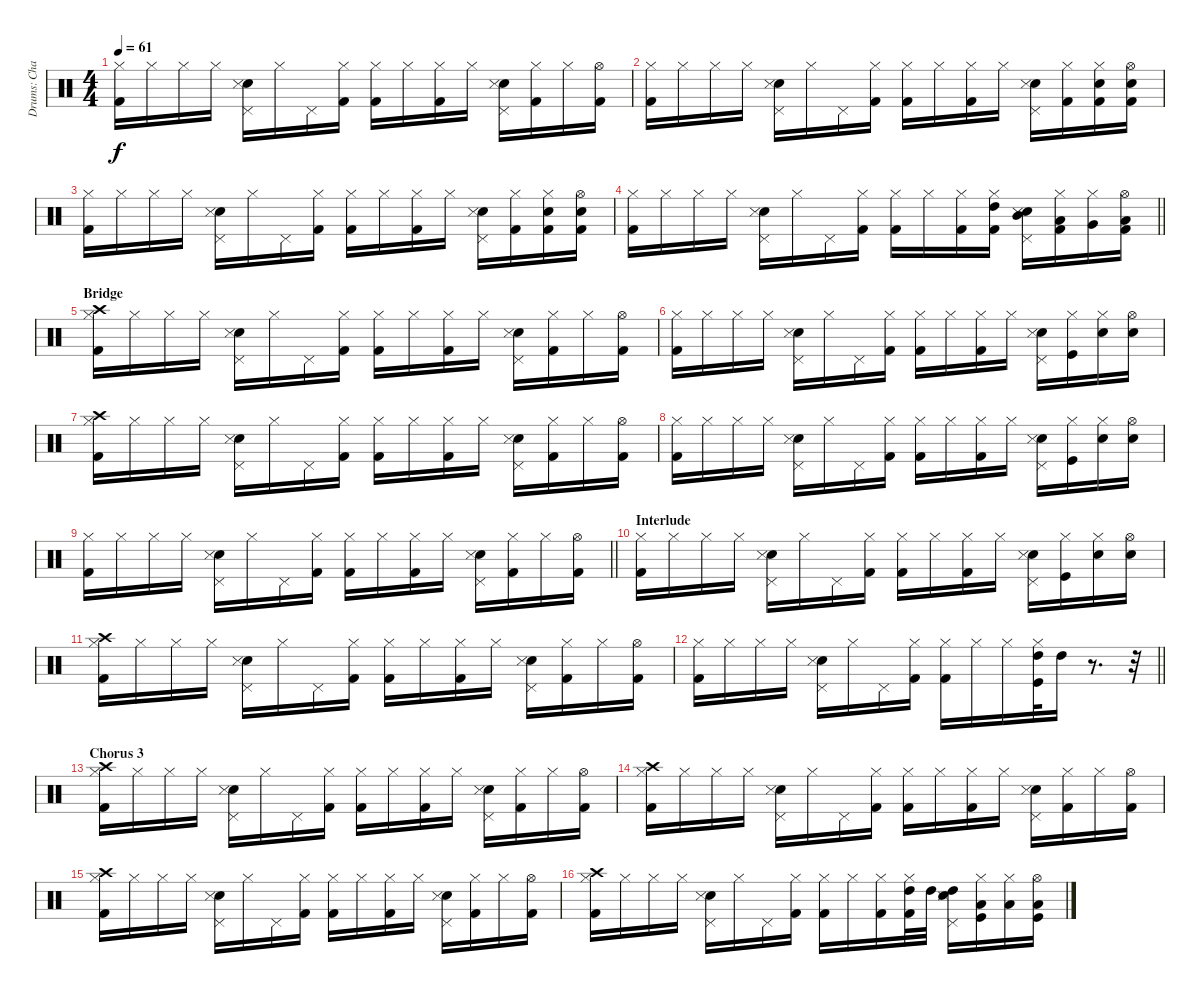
\track ("Drums: Charlie Sierra" "Drums: Cha") {instrument percussion}
\staff {score}
\articulation defaults
\ts (4 4)
\tempo 61
\clef neutral
\ks c
("Hi-Hat (closed)" "Kick (hit) 2").16{dy f} "Hi-Hat (closed)".16 "Hi-Hat (closed)".16 "Hi-Hat (closed)".16 ("Pedal Hi-Hat (hit)" "Snare (hit) 2" "Snare (side stick) 3").16 "Hi-Hat (closed)".16 "Pedal Hi-Hat (hit)".16 ("Hi-Hat (closed)" "Kick (hit) 2").16 ("Hi-Hat (closed)" "Kick (hit) 2").16 "Hi-Hat (closed)".16 ("Hi-Hat (closed)" "Kick (hit) 2").16 "Hi-Hat (closed)".16 ("Pedal Hi-Hat (hit)" "Snare (hit) 2" "Snare (side stick) 3").16 ("Hi-Hat (closed)" "Kick (hit) 2").16 "Hi-Hat (closed)".16 ("Hi-Hat (open)" "Kick (hit) 2").16 |
("Hi-Hat (closed)" "Kick (hit) 2").16 "Hi-Hat (closed)".16 "Hi-Hat (closed)".16 "Hi-Hat (closed)".16 ("Pedal Hi-Hat (hit)" "Snare (hit) 2" "Snare (side stick) 3").16 "Hi-Hat (closed)".16 "Pedal Hi-Hat (hit)".16 ("Hi-Hat (closed)" "Kick (hit) 2").16 ("Hi-Hat (closed)" "Kick (hit) 2").16 "Hi-Hat (closed)".16 ("Hi-Hat (closed)" "Kick (hit) 2").16 "Hi-Hat (closed)".16 ("Pedal Hi-Hat (hit)" "Snare (hit) 2" "Snare (side stick) 3").16 ("Hi-Hat (closed)" "Kick (hit) 2").16 ("Hi-Hat (closed)" "Snare (hit) 2" "Kick (hit) 2").16 ("Hi-Hat (open)" "Snare (hit) 2" "Kick (hit) 2").16 |
("Hi-Hat (closed)" "Kick (hit) 2").16 "Hi-Hat (closed)".16 "Hi-Hat (closed)".16 "Hi-Hat (closed)".16 ("Pedal Hi-Hat (hit)" "Snare (hit) 2" "Snare (side stick) 3").16 "Hi-Hat (closed)".16 "Pedal Hi-Hat (hit)".16 ("Hi-Hat (closed)" "Kick (hit) 2").16 ("Hi-Hat (closed)" "Kick (hit) 2").16 "Hi-Hat (closed)".16 ("Hi-Hat (closed)" "Kick (hit) 2").16 "Hi-Hat (closed)".16 ("Pedal Hi-Hat (hit)" "Snare (hit) 2" "Snare (side stick) 3").16 ("Hi-Hat (closed)" "Kick (hit) 2").16 ("Hi-Hat (closed)" "Snare (hit) 2" "Kick (hit) 2").16 ("Hi-Hat (open)" "Snare (hit) 2" "Kick (hit) 2").16 |
\barLineRight lightlight
("Hi-Hat (closed)" "Kick (hit) 2").16 "Hi-Hat (closed)".16 "Hi-Hat (closed)".16 "Hi-Hat (closed)".16 ("Pedal Hi-Hat (hit)" "Snare (hit) 2" "Snare (side stick) 3").16 "Hi-Hat (closed)".16 "Pedal Hi-Hat (hit)".16 ("Hi-Hat (closed)" "Kick (hit) 2").16 ("Hi-Hat (closed)" "Kick (hit) 2").16 "Hi-Hat (closed)".16 ("Hi-Hat (closed)" "Kick (hit) 2").16 ("Hi-Hat (closed)" "High Tom (hit)" "Kick (hit) 2").16 ("Pedal Hi-Hat (hit)" "Snare (hit) 2" "Mid Tom (hit)" "Snare (side stick) 3").16 ("Hi-Hat (closed)" "Low Tom (hit)" "Kick (hit) 2").16 ("Hi-Hat (closed)" "Very Low Tom (hit)").16 ("Hi-Hat (open)" "Low Floor Tom (hit)" "Kick (hit) 2").16 |
\section ("" "Bridge")
("Crash high (hit)" "Hi-Hat (closed)" "Kick (hit) 2").16 "Hi-Hat (closed)".16 "Hi-Hat (closed)".16 "Hi-Hat (closed)".16 ("Pedal Hi-Hat (hit)" "Snare (hit) 2" "Snare (side stick) 3").16 "Hi-Hat (closed)".16 "Pedal Hi-Hat (hit)".16 ("Hi-Hat (closed)" "Kick (hit) 2").16 ("Hi-Hat (closed)" "Kick (hit) 2").16 "Hi-Hat (closed)".16 ("Hi-Hat (closed)" "Kick (hit) 2").16 "Hi-Hat (closed)".16 ("Pedal Hi-Hat (hit)" "Snare (hit) 2" "Snare (side stick) 3").16 ("Hi-Hat (closed)" "Kick (hit) 2").16 "Hi-Hat (closed)".16 ("Hi-Hat (open)" "Kick (hit) 2").16 |
("Hi-Hat (closed)" "Kick (hit) 2").16 "Hi-Hat (closed)".16 "Hi-Hat (closed)".16 "Hi-Hat (closed)".16 ("Pedal Hi-Hat (hit)" "Snare (hit) 2" "Snare (side stick) 3").16 "Hi-Hat (closed)".16 "Pedal Hi-Hat (hit)".16 ("Hi-Hat (closed)" "Kick (hit) 2").16 ("Hi-Hat (closed)" "Kick (hit) 2").16 "Hi-Hat (closed)".16 ("Hi-Hat (closed)" "Kick (hit) 2").16 "Hi-Hat (closed)".16 ("Pedal Hi-Hat (hit)" "Snare (hit) 2" "Snare (side stick) 3").16 ("Kick (hit)" "Hi-Hat (closed)").16 ("Snare (hit) 2" "Hi-Hat (closed)").16 ("Snare (hit) 2" "Hi-Hat (open)").16 |
("Crash high (hit)" "Hi-Hat (closed)" "Kick (hit) 2").16 "Hi-Hat (closed)".16 "Hi-Hat (closed)".16 "Hi-Hat (closed)".16 ("Pedal Hi-Hat (hit)" "Snare (hit) 2" "Snare (side stick) 3").16 "Hi-Hat (closed)".16 "Pedal Hi-Hat (hit)".16 ("Hi-Hat (closed)" "Kick (hit) 2").16 ("Hi-Hat (closed)" "Kick (hit) 2").16 "Hi-Hat (closed)".16 ("Hi-Hat (closed)" "Kick (hit) 2").16 "Hi-Hat (closed)".16 ("Pedal Hi-Hat (hit)" "Snare (hit) 2" "Snare (side stick) 3").16 ("Hi-Hat (closed)" "Kick (hit) 2").16 "Hi-Hat (closed)".16 ("Hi-Hat (open)" "Kick (hit) 2").16 |
("Hi-Hat (closed)" "Kick (hit) 2").16 "Hi-Hat (closed)".16 "Hi-Hat (closed)".16 "Hi-Hat (closed)".16 ("Pedal Hi-Hat (hit)" "Snare (hit) 2" "Snare (side stick) 3").16 "Hi-Hat (closed)".16 "Pedal Hi-Hat (hit)".16 ("Hi-Hat (closed)" "Kick (hit) 2").16 ("Hi-Hat (closed)" "Kick (hit) 2").16 "Hi-Hat (closed)".16 ("Hi-Hat (closed)" "Kick (hit) 2").16 "Hi-Hat (closed)".16 ("Pedal Hi-Hat (hit)" "Snare (hit) 2" "Snare (side stick) 3").16 ("Kick (hit)" "Hi-Hat (closed)").16 ("Snare (hit) 2" "Hi-Hat (closed)").16 ("Snare (hit) 2" "Hi-Hat (open)").16 |
\barLineRight lightlight
("Hi-Hat (closed)" "Kick (hit) 2").16 "Hi-Hat (closed)".16 "Hi-Hat (closed)".16 "Hi-Hat (closed)".16 ("Pedal Hi-Hat (hit)" "Snare (hit) 2" "Snare (side stick) 3").16 "Hi-Hat (closed)".16 "Pedal Hi-Hat (hit)".16 ("Hi-Hat (closed)" "Kick (hit) 2").16 ("Hi-Hat (closed)" "Kick (hit) 2").16 "Hi-Hat (closed)".16 ("Hi-Hat (closed)" "Kick (hit) 2").16 "Hi-Hat (closed)".16 ("Pedal Hi-Hat (hit)" "Snare (hit) 2" "Snare (side stick) 3").16 ("Hi-Hat (closed)" "Kick (hit) 2").16 "Hi-Hat (closed)".16 ("Hi-Hat (open)" "Kick (hit) 2").16 |
\section ("" "Interlude")
("Hi-Hat (closed)" "Kick (hit) 2").16 "Hi-Hat (closed)".16 "Hi-Hat (closed)".16 "Hi-Hat (closed)".16 ("Pedal Hi-Hat (hit)" "Snare (hit) 2" "Snare (side stick) 3").16 "Hi-Hat (closed)".16 "Pedal Hi-Hat (hit)".16 ("Hi-Hat (closed)" "Kick (hit) 2").16 ("Hi-Hat (closed)" "Kick (hit) 2").16 "Hi-Hat (closed)".16 ("Hi-Hat (closed)" "Kick (hit) 2").16 "Hi-Hat (closed)".16 ("Pedal Hi-Hat (hit)" "Snare (hit) 2" "Snare (side stick) 3").16 ("Kick (hit)" "Hi-Hat (closed)").16 ("Snare (hit) 2" "Hi-Hat (closed)").16 ("Snare (hit) 2" "Hi-Hat (open)").16 |
("Crash high (hit)" "Hi-Hat (closed)" "Kick (hit) 2").16 "Hi-Hat (closed)".16 "Hi-Hat (closed)".16 "Hi-Hat (closed)".16 ("Pedal Hi-Hat (hit)" "Snare (hit) 2" "Snare (side stick) 3").16 "Hi-Hat (closed)".16 "Pedal Hi-Hat (hit)".16 ("Hi-Hat (closed)" "Kick (hit) 2").16 ("Hi-Hat (closed)" "Kick (hit) 2").16 "Hi-Hat (closed)".16 ("Hi-Hat (closed)" "Kick (hit) 2").16 "Hi-Hat (closed)".16 ("Pedal Hi-Hat (hit)" "Snare (hit) 2" "Snare (side stick) 3").16 ("Hi-Hat (closed)" "Kick (hit) 2").16 "Hi-Hat (closed)".16 ("Hi-Hat (open)" "Kick (hit) 2").16 |
\barLineRight lightlight
("Hi-Hat (closed)" "Kick (hit) 2").16 "Hi-Hat (closed)".16 "Hi-Hat (closed)".16 "Hi-Hat (closed)".16 ("Pedal Hi-Hat (hit)" "Snare (hit) 2" "Snare (side stick) 3").16 "Hi-Hat (closed)".16 "Pedal Hi-Hat (hit)".16 ("Hi-Hat (closed)" "Kick (hit) 2").16 ("Hi-Hat (closed)" "Kick (hit) 2").16 "Hi-Hat (closed)".16 "Hi-Hat (closed)".16 ("Kick (hit)" "Hi-Hat (closed)" "High Tom (hit)").32 "High Tom (hit)".16 r.8{d} r.32 |
\section ("" "Chorus 3")
("Crash high (hit)" "Hi-Hat (closed)" "Kick (hit) 2").16 "Hi-Hat (closed)".16 "Hi-Hat (closed)".16 "Hi-Hat (closed)".16 ("Pedal Hi-Hat (hit)" "Snare (hit) 2" "Snare (side stick) 3").16 "Hi-Hat (closed)".16 "Pedal Hi-Hat (hit)".16 ("Hi-Hat (closed)" "Kick (hit) 2").16 ("Hi-Hat (closed)" "Kick (hit) 2").16 "Hi-Hat (closed)".16 ("Hi-Hat (closed)" "Kick (hit) 2").16 "Hi-Hat (closed)".16 ("Pedal Hi-Hat (hit)" "Snare (hit) 2" "Snare (side stick) 3").16 ("Hi-Hat (closed)" "Kick (hit) 2").16 "Hi-Hat (closed)".16 ("Hi-Hat (open)" "Kick (hit) 2").16 |
("Crash high (hit)" "Hi-Hat (closed)" "Kick (hit) 2").16 "Hi-Hat (closed)".16 "Hi-Hat (closed)".16 "Hi-Hat (closed)".16 ("Pedal Hi-Hat (hit)" "Snare (hit) 2" "Snare (side stick) 3").16 "Hi-Hat (closed)".16 "Pedal Hi-Hat (hit)".16 ("Hi-Hat (closed)" "Kick (hit) 2").16 ("Hi-Hat (closed)" "Kick (hit) 2").16 "Hi-Hat (closed)".16 ("Hi-Hat (closed)" "Kick (hit) 2").16 "Hi-Hat (closed)".16 ("Pedal Hi-Hat (hit)" "Snare (hit) 2" "Snare (side stick) 3").16 ("Hi-Hat (closed)" "Kick (hit) 2").16 "Hi-Hat (closed)".16 ("Hi-Hat (open)" "Kick (hit) 2").16 |
("Crash high (hit)" "Hi-Hat (closed)" "Kick (hit) 2").16 "Hi-Hat (closed)".16 "Hi-Hat (closed)".16 "Hi-Hat (closed)".16 ("Pedal Hi-Hat (hit)" "Snare (hit) 2" "Snare (side stick) 3").16 "Hi-Hat (closed)".16 "Pedal Hi-Hat (hit)".16 ("Hi-Hat (closed)" "Kick (hit) 2").16 ("Hi-Hat (closed)" "Kick (hit) 2").16 "Hi-Hat (closed)".16 ("Hi-Hat (closed)" "Kick (hit) 2").16 "Hi-Hat (closed)".16 ("Pedal Hi-Hat (hit)" "Snare (hit) 2" "Snare (side stick) 3").16 ("Hi-Hat (closed)" "Kick (hit) 2").16 "Hi-Hat (closed)".16 ("Hi-Hat (open)" "Kick (hit) 2").16 |
("Crash high (hit)" "Hi-Hat (closed)" "Kick (hit) 2").16 "Hi-Hat (closed)".16 "Hi-Hat (closed)".16 "Hi-Hat (closed)".16 ("Pedal Hi-Hat (hit)" "Snare (hit) 2" "Snare (side stick) 3").16 "Hi-Hat (closed)".16 "Pedal Hi-Hat (hit)".16 ("Hi-Hat (closed)" "Kick (hit) 2").16 ("Hi-Hat (closed)" "Kick (hit) 2").16 "Hi-Hat (closed)".16 ("Hi-Hat (closed)" "Kick (hit) 2").16 ("Hi-Hat (closed)" "High Tom (hit)" "Kick (hit) 2").32 "High Tom (hit)".32 ("Snare (hit) 2" "Snare (side stick) 3" "High Tom (hit)" "Pedal Hi-Hat (hit)").16 ("Kick (hit)" "Hi-Hat (closed)" "Low Floor Tom (hit)").16 ("Hi-Hat (closed)" "Low Tom (hit)").16 ("Kick (hit)" "Hi-Hat (open)" "Low Tom (hit)").16
